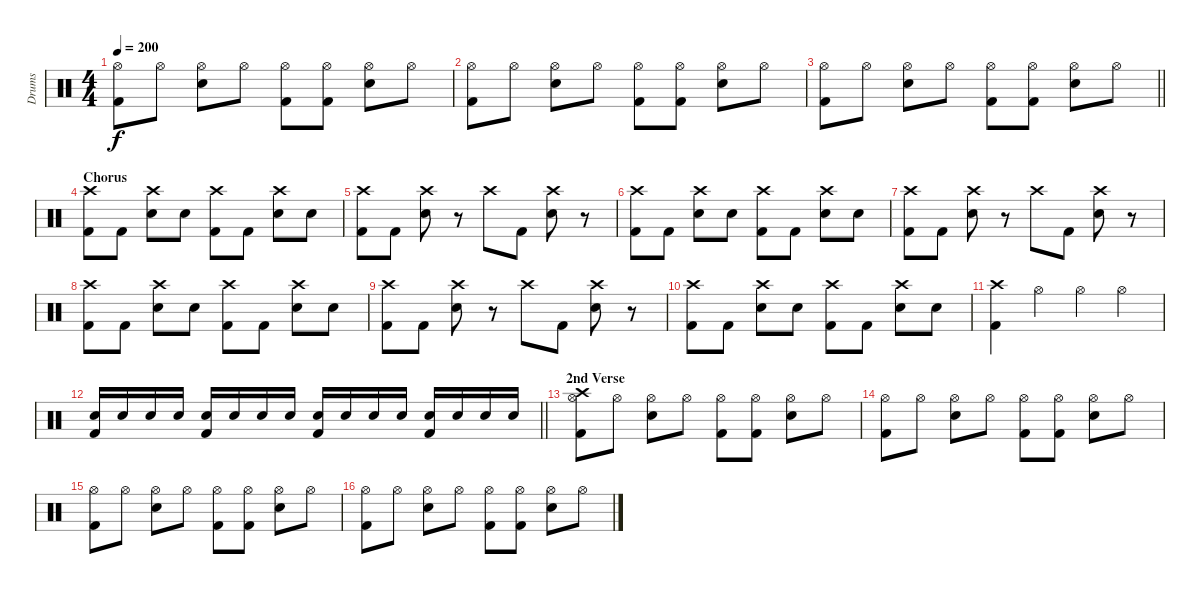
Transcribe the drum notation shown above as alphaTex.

\track ("Drums" "Drums") {instrument percussion}
\staff {score}
\articulation defaults
\ts (4 4)
\tempo 200
\clef neutral
\ks c
("Hi-Hat (open)" "Kick (hit) 2").8{dy f} "Hi-Hat (open)".8 ("Hi-Hat (open)" "Electric Snare (hit)").8 "Hi-Hat (open)".8 ("Hi-Hat (open)" "Kick (hit) 2").8 ("Hi-Hat (open)" "Kick (hit) 2").8 ("Hi-Hat (open)" "Electric Snare (hit)").8 "Hi-Hat (open)".8 |
("Hi-Hat (open)" "Kick (hit) 2").8 "Hi-Hat (open)".8 ("Hi-Hat (open)" "Electric Snare (hit)").8 "Hi-Hat (open)".8 ("Hi-Hat (open)" "Kick (hit) 2").8 ("Hi-Hat (open)" "Kick (hit) 2").8 ("Hi-Hat (open)" "Electric Snare (hit)").8 "Hi-Hat (open)".8 |
\barLineRight lightlight
("Hi-Hat (open)" "Kick (hit) 2").8 "Hi-Hat (open)".8 ("Hi-Hat (open)" "Electric Snare (hit)").8 "Hi-Hat (open)".8 ("Hi-Hat (open)" "Kick (hit) 2").8 ("Hi-Hat (open)" "Kick (hit) 2").8 ("Hi-Hat (open)" "Electric Snare (hit)").8 "Hi-Hat (open)".8 |
\section ("" "Chorus")
("Crash high (hit)" "Kick (hit) 2").8 "Kick (hit) 2".8 ("Crash high (hit)" "Electric Snare (hit)").8 "Electric Snare (hit)".8 ("Crash high (hit)" "Kick (hit) 2").8 "Kick (hit) 2".8 ("Crash high (hit)" "Electric Snare (hit)").8 "Electric Snare (hit)".8 |
("Crash high (hit)" "Kick (hit) 2").8 "Kick (hit) 2".8 ("Crash high (hit)" "Electric Snare (hit)").8 r.8 "Crash high (hit)".8 "Kick (hit) 2".8 ("Crash high (hit)" "Electric Snare (hit)").8 r.8 |
("Crash high (hit)" "Kick (hit) 2").8 "Kick (hit) 2".8 ("Crash high (hit)" "Electric Snare (hit)").8 "Electric Snare (hit)".8 ("Crash high (hit)" "Kick (hit) 2").8 "Kick (hit) 2".8 ("Crash high (hit)" "Electric Snare (hit)").8 "Electric Snare (hit)".8 |
("Crash high (hit)" "Kick (hit) 2").8 "Kick (hit) 2".8 ("Crash high (hit)" "Electric Snare (hit)").8 r.8 "Crash high (hit)".8 "Kick (hit) 2".8 ("Crash high (hit)" "Electric Snare (hit)").8 r.8 |
("Crash high (hit)" "Kick (hit) 2").8 "Kick (hit) 2".8 ("Crash high (hit)" "Electric Snare (hit)").8 "Electric Snare (hit)".8 ("Crash high (hit)" "Kick (hit) 2").8 "Kick (hit) 2".8 ("Crash high (hit)" "Electric Snare (hit)").8 "Electric Snare (hit)".8 |
("Crash high (hit)" "Kick (hit) 2").8 "Kick (hit) 2".8 ("Crash high (hit)" "Electric Snare (hit)").8 r.8 "Crash high (hit)".8 "Kick (hit) 2".8 ("Crash high (hit)" "Electric Snare (hit)").8 r.8 |
("Crash high (hit)" "Kick (hit) 2").8 "Kick (hit) 2".8 ("Crash high (hit)" "Electric Snare (hit)").8 "Electric Snare (hit)".8 ("Crash high (hit)" "Kick (hit) 2").8 "Kick (hit) 2".8 ("Crash high (hit)" "Electric Snare (hit)").8 "Electric Snare (hit)".8 |
("Crash high (hit)" "Kick (hit) 2").4 "Hi-Hat (open)".4 "Hi-Hat (open)".4 "Hi-Hat (open)".4 |
\barLineRight lightlight
("Electric Snare (hit)" "Kick (hit) 2").16 "Electric Snare (hit)".16 "Electric Snare (hit)".16 "Electric Snare (hit)".16 ("Electric Snare (hit)" "Kick (hit) 2").16 "Electric Snare (hit)".16 "Electric Snare (hit)".16 "Electric Snare (hit)".16 ("Electric Snare (hit)" "Kick (hit) 2").16 "Electric Snare (hit)".16 "Electric Snare (hit)".16 "Electric Snare (hit)".16 ("Electric Snare (hit)" "Kick (hit) 2").16 "Electric Snare (hit)".16 "Electric Snare (hit)".16 "Electric Snare (hit)".16 |
\section ("" "2nd Verse")
("Hi-Hat (open)" "Crash high (hit)" "Kick (hit) 2").8 "Hi-Hat (open)".8 ("Hi-Hat (open)" "Electric Snare (hit)").8 "Hi-Hat (open)".8 ("Hi-Hat (open)" "Kick (hit) 2").8 ("Hi-Hat (open)" "Kick (hit) 2").8 ("Hi-Hat (open)" "Electric Snare (hit)").8 "Hi-Hat (open)".8 |
("Hi-Hat (open)" "Kick (hit) 2").8 "Hi-Hat (open)".8 ("Hi-Hat (open)" "Electric Snare (hit)").8 "Hi-Hat (open)".8 ("Hi-Hat (open)" "Kick (hit) 2").8 ("Hi-Hat (open)" "Kick (hit) 2").8 ("Hi-Hat (open)" "Electric Snare (hit)").8 "Hi-Hat (open)".8 |
("Hi-Hat (open)" "Kick (hit) 2").8 "Hi-Hat (open)".8 ("Hi-Hat (open)" "Electric Snare (hit)").8 "Hi-Hat (open)".8 ("Hi-Hat (open)" "Kick (hit) 2").8 ("Hi-Hat (open)" "Kick (hit) 2").8 ("Hi-Hat (open)" "Electric Snare (hit)").8 "Hi-Hat (open)".8 |
("Hi-Hat (open)" "Kick (hit) 2").8 "Hi-Hat (open)".8 ("Hi-Hat (open)" "Electric Snare (hit)").8 "Hi-Hat (open)".8 ("Hi-Hat (open)" "Kick (hit) 2").8 ("Hi-Hat (open)" "Kick (hit) 2").8 ("Hi-Hat (open)" "Electric Snare (hit)").8 "Hi-Hat (open)".8
